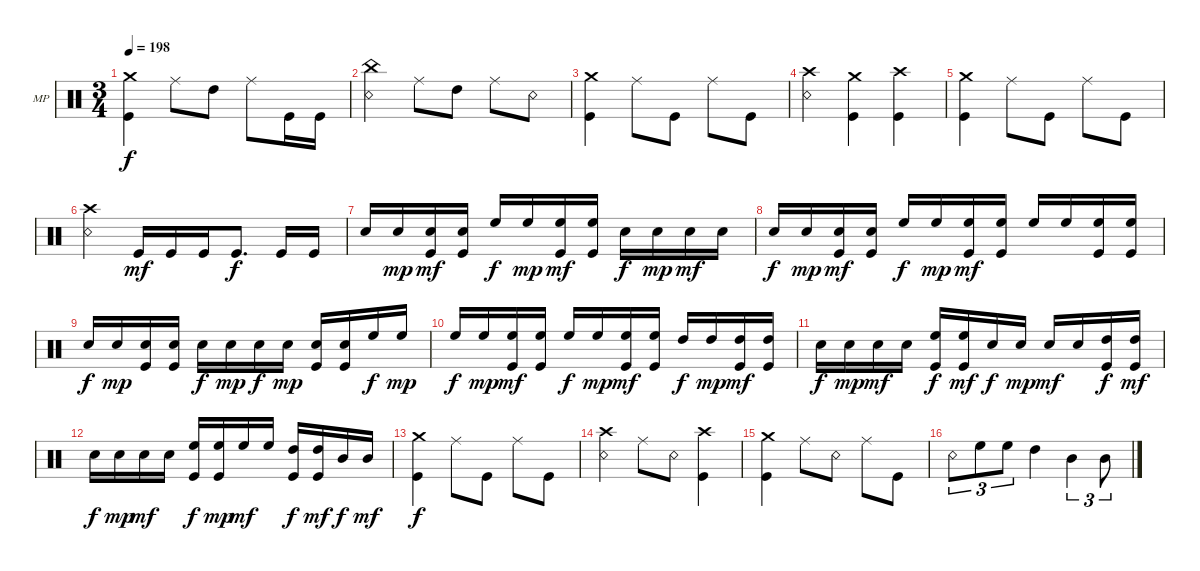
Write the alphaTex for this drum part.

\defaultSystemsLayout 4
\bracketExtendMode groupsimilarinstruments
\firstSystemTrackNameOrientation horizontal
\otherSystemsTrackNameOrientation horizontal
\track ("Mike Portnoy" "MP") {instrument percussion}
\staff {score}
\articulation defaults
\ts (3 4)
\tempo 198
\clef neutral
\ks c
("Crash medium (hit)" "Kick (hit)").4{dy f} "Ride (middle)".8 "High Tom (hit)".8 "Ride (middle)".8 "Kick (hit)".16 "Kick (hit)".16 |
("China (hit)" "Snare (rim shot)").4 "Ride (middle)".8 "High Tom (hit)".8 "Ride (middle)".8 "Snare (rim shot)".8 |
("Crash medium (hit)" "Kick (hit)").4 "Ride (middle)".8 "Kick (hit)".8 "Ride (middle)".8 "Kick (hit)".8 |
("Crash high (hit)" "Snare (rim shot)").4 ("Crash medium (hit)" "Kick (hit)").4 ("Crash high (hit)" "Kick (hit)").4 |
("Crash medium (hit)" "Kick (hit)").4 "Ride (middle)".8 "Kick (hit)".8 "Ride (middle)".8 "Kick (hit)".8 |
("Crash high (hit)" "Snare (rim shot)").4 "Kick (hit)".16{dy mf} "Kick (hit)".16 "Kick (hit)".16 "Kick (hit)".8{d dy f} "Kick (hit)".16 "Kick (hit)".16 |
"Snare (hit) 2".16 "Snare (hit) 2".16{dy mp} ("Snare (hit) 2" "Kick (hit)").16{dy mf} ("Snare (hit) 2" "Kick (hit)").16 "High Floor Tom (hit)".16{dy f} "High Floor Tom (hit)".16{dy mp} ("High Floor Tom (hit)" "Kick (hit)").16{dy mf} ("High Floor Tom (hit)" "Kick (hit)").16 "Snare (hit) 2".16{dy f} "Snare (hit) 2".16{dy mp} "Snare (hit) 2".16{dy mf} "Snare (hit) 2".16 |
"Snare (hit) 2".16{dy f} "Snare (hit) 2".16{dy mp} ("Snare (hit) 2" "Kick (hit)").16{dy mf} ("Snare (hit) 2" "Kick (hit)").16 "High Floor Tom (hit)".16{dy f} "High Floor Tom (hit)".16{dy mp} ("High Floor Tom (hit)" "Kick (hit)").16{dy mf} ("High Floor Tom (hit)" "Kick (hit)").16 "High Floor Tom (hit)".16 "High Floor Tom (hit)".16 ("High Floor Tom (hit)" "Kick (hit)").16 ("High Floor Tom (hit)" "Kick (hit)").16 |
"Snare (hit) 2".16{dy f} "Snare (hit) 2".16{dy mp} ("Snare (hit) 2" "Kick (hit)").16 ("Snare (hit) 2" "Kick (hit)").16 "Snare (hit) 2".16{dy f} "Snare (hit) 2".16{dy mp} "Snare (hit) 2".16{dy f} "Snare (hit) 2".16{dy mp} ("Snare (hit) 2" "Kick (hit)").16 ("Snare (hit) 2" "Kick (hit)").16 "High Floor Tom (hit)".16{dy f} "High Floor Tom (hit)".16{dy mp} |
"High Floor Tom (hit)".16{dy f} "High Floor Tom (hit)".16{dy mp} ("High Floor Tom (hit)" "Kick (hit)").16{dy mf} ("High Floor Tom (hit)" "Kick (hit)").16 "High Floor Tom (hit)".16{dy f} "High Floor Tom (hit)".16{dy mp} ("High Floor Tom (hit)" "Kick (hit)").16{dy mf} ("High Floor Tom (hit)" "Kick (hit)").16 "High Tom (hit)".16{dy f} "High Tom (hit)".16{dy mp} ("High Tom (hit)" "Kick (hit)").16{dy mf} ("High Tom (hit)" "Kick (hit)").16 |
"Snare (hit) 2".16{dy f} "Snare (hit) 2".16{dy mp} "Snare (hit) 2".16{dy mf} "Snare (hit) 2".16 ("High Floor Tom (hit)" "Kick (hit)").16{dy f} ("High Floor Tom (hit)" "Kick (hit)").16{dy mf} "Snare (hit) 2".16{dy f} "Snare (hit) 2".16{dy mp} "Snare (hit) 2".16{dy mf} "Snare (hit) 2".16 ("High Tom (hit)" "Kick (hit)").16{dy f} ("High Tom (hit)" "Kick (hit)").16{dy mf} |
"Snare (hit) 2".16{dy f} "Snare (hit) 2".16{dy mp} "Snare (hit) 2".16{dy mf} "Snare (hit) 2".16 ("High Floor Tom (hit)" "Kick (hit)").16{dy f} ("High Floor Tom (hit)" "Kick (hit)").16{dy mp} "High Floor Tom (hit)".16{dy mf} "High Floor Tom (hit)".16 ("High Tom (hit)" "Kick (hit)").16{dy f} ("High Tom (hit)" "Kick (hit)").16{dy mf} "Mid Tom (hit)".16{dy f} "Mid Tom (hit)".16{dy mf} |
("Crash medium (hit)" "Kick (hit)").4{dy f} "Ride (middle)".8 "Kick (hit)".8 "Ride (middle)".8 "Kick (hit)".8 |
("Crash high (hit)" "Snare (rim shot)").4 "Ride (middle)".8 "Snare (rim shot)".8 ("Crash high (hit)" "Kick (hit)").4 |
("Crash medium (hit)" "Kick (hit)").4 "Ride (middle)".8 "Snare (rim shot)".8 "Ride (middle)".8 "Kick (hit)".8 |
"Snare (rim shot)".8{tu (3 2)} "High Floor Tom (hit)".8{tu (3 2)} "High Floor Tom (hit)".8{tu (3 2)} "High Tom (hit)".4 "Mid Tom (hit)".4{tu (3 2)} "Mid Tom (hit)".8{tu (3 2)}
